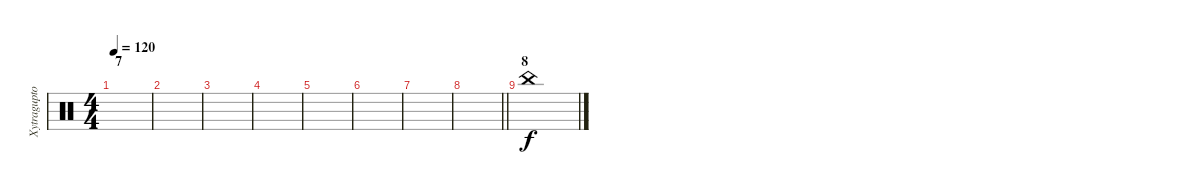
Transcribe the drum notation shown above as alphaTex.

\track ("Xytraguptor-Percussions" "Xytragupto") {instrument percussion}
\staff {score}
\articulation defaults
\ts (4 4)
\section ("" "7")
\tempo 120
\clef neutral
\ks c
|
|
|
|
|
|
|
\barLineRight lightlight
|
\section ("" "8")
"China (hit)".1
